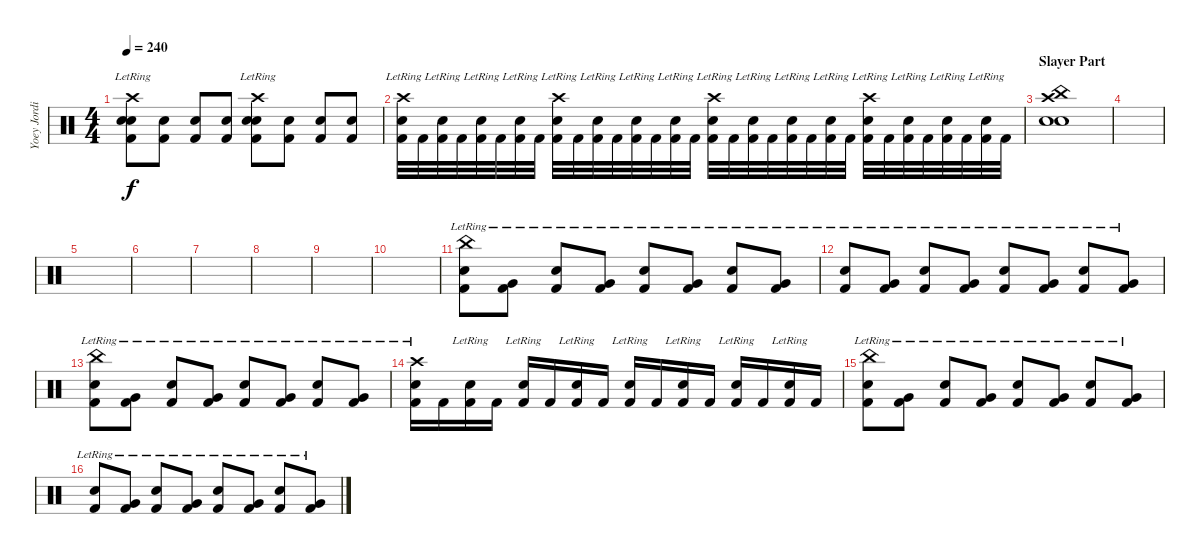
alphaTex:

\track ("Yoey Jordison" "Yoey Jordi") {instrument percussion}
\staff {score}
\articulation defaults
\ts (4 4)
\tempo 240
\clef neutral
\ks c
("Crash high (hit)" "Snare (hit) 2" "Kick (hit) 2" "Electric Snare (hit)"{lr}).8{dy f} ("Snare (hit) 2" "Kick (hit) 2").8 ("Snare (hit) 2" "Kick (hit) 2").8 ("Snare (hit) 2" "Kick (hit) 2").8 ("Crash high (hit)" "Snare (hit) 2" "Kick (hit) 2" "Electric Snare (hit)"{lr}).8 ("Snare (hit) 2" "Kick (hit) 2").8 ("Snare (hit) 2" "Kick (hit) 2").8 ("Snare (hit) 2" "Kick (hit) 2").8 |
("Crash high (hit)" "Kick (hit) 2" "Electric Snare (hit)"{lr}).32 "Kick (hit) 2".32 ("Kick (hit) 2" "Electric Snare (hit)"{lr}).32 "Kick (hit) 2".32 ("Kick (hit) 2" "Electric Snare (hit)"{lr}).32 "Kick (hit) 2".32 ("Kick (hit) 2" "Electric Snare (hit)"{lr}).32 "Kick (hit) 2".32 ("Crash high (hit)" "Kick (hit) 2" "Electric Snare (hit)"{lr}).32 "Kick (hit) 2".32 ("Kick (hit) 2" "Electric Snare (hit)"{lr}).32 "Kick (hit) 2".32 ("Kick (hit) 2" "Electric Snare (hit)"{lr}).32 "Kick (hit) 2".32 ("Kick (hit) 2" "Electric Snare (hit)"{lr}).32 "Kick (hit) 2".32 ("Crash high (hit)" "Kick (hit) 2" "Electric Snare (hit)"{lr}).32 "Kick (hit) 2".32 ("Kick (hit) 2" "Electric Snare (hit)"{lr}).32 "Kick (hit) 2".32 ("Kick (hit) 2" "Electric Snare (hit)"{lr}).32 "Kick (hit) 2".32 ("Kick (hit) 2" "Electric Snare (hit)"{lr}).32 "Kick (hit) 2".32 ("Crash high (hit)" "Kick (hit) 2" "Electric Snare (hit)"{lr}).32 "Kick (hit) 2".32 ("Kick (hit) 2" "Electric Snare (hit)"{lr}).32 "Kick (hit) 2".32 ("Kick (hit) 2" "Electric Snare (hit)"{lr}).32 "Kick (hit) 2".32 ("Kick (hit) 2" "Electric Snare (hit)"{lr}).32 "Kick (hit) 2".32 |
\section ("" "Slayer Part")
("Crash high (hit)" "China (hit)" "Snare (hit) 2" "Electric Snare (hit)").1 |
|
|
|
|
|
|
|
("China (hit)" "Kick (hit) 2" "Electric Snare (hit)"{lr}).8 ("Kick (hit) 2" "Very Low Tom (hit)"{lr}).8 ("Kick (hit) 2" "Electric Snare (hit)"{lr}).8 ("Kick (hit) 2" "Very Low Tom (hit)"{lr}).8 ("Kick (hit) 2" "Electric Snare (hit)"{lr}).8 ("Kick (hit) 2" "Very Low Tom (hit)"{lr}).8 ("Kick (hit) 2" "Electric Snare (hit)"{lr}).8 ("Kick (hit) 2" "Very Low Tom (hit)"{lr}).8 |
("Kick (hit) 2" "Electric Snare (hit)"{lr}).8 ("Kick (hit) 2" "Very Low Tom (hit)"{lr}).8 ("Kick (hit) 2" "Electric Snare (hit)"{lr}).8 ("Kick (hit) 2" "Very Low Tom (hit)"{lr}).8 ("Kick (hit) 2" "Electric Snare (hit)"{lr}).8 ("Kick (hit) 2" "Very Low Tom (hit)"{lr}).8 ("Kick (hit) 2" "Electric Snare (hit)"{lr}).8 ("Kick (hit) 2" "Very Low Tom (hit)"{lr}).8 |
("China (hit)" "Kick (hit) 2" "Electric Snare (hit)"{lr}).8 ("Kick (hit) 2" "Very Low Tom (hit)"{lr}).8 ("Kick (hit) 2" "Electric Snare (hit)"{lr}).8 ("Kick (hit) 2" "Very Low Tom (hit)"{lr}).8 ("Kick (hit) 2" "Electric Snare (hit)"{lr}).8 ("Kick (hit) 2" "Very Low Tom (hit)"{lr}).8 ("Kick (hit) 2" "Electric Snare (hit)"{lr}).8 ("Kick (hit) 2" "Very Low Tom (hit)"{lr}).8 |
("Crash high (hit)" "Kick (hit) 2" "Electric Snare (hit)"{lr}).16 "Kick (hit) 2".16 ("Kick (hit) 2" "Snare (hit) 2"{lr}).16 "Kick (hit) 2".16 ("Kick (hit) 2" "Electric Snare (hit)"{lr}).16 "Kick (hit) 2".16 ("Kick (hit) 2" "Snare (hit) 2"{lr}).16 "Kick (hit) 2".16 ("Kick (hit) 2" "Electric Snare (hit)"{lr}).16 "Kick (hit) 2".16 ("Kick (hit) 2" "Snare (hit) 2"{lr}).16 "Kick (hit) 2".16 ("Kick (hit) 2" "Electric Snare (hit)"{lr}).16 "Kick (hit) 2".16 ("Kick (hit) 2" "Snare (hit) 2"{lr}).16 "Kick (hit) 2".16 |
("China (hit)" "Kick (hit) 2" "Electric Snare (hit)"{lr}).8 ("Kick (hit) 2" "Very Low Tom (hit)"{lr}).8 ("Kick (hit) 2" "Electric Snare (hit)"{lr}).8 ("Kick (hit) 2" "Very Low Tom (hit)"{lr}).8 ("Kick (hit) 2" "Electric Snare (hit)"{lr}).8 ("Kick (hit) 2" "Very Low Tom (hit)"{lr}).8 ("Kick (hit) 2" "Electric Snare (hit)"{lr}).8 ("Kick (hit) 2" "Very Low Tom (hit)"{lr}).8 |
("Kick (hit) 2" "Electric Snare (hit)"{lr}).8 ("Kick (hit) 2" "Very Low Tom (hit)"{lr}).8 ("Kick (hit) 2" "Electric Snare (hit)"{lr}).8 ("Kick (hit) 2" "Very Low Tom (hit)"{lr}).8 ("Kick (hit) 2" "Electric Snare (hit)"{lr}).8 ("Kick (hit) 2" "Very Low Tom (hit)"{lr}).8 ("Kick (hit) 2" "Electric Snare (hit)"{lr}).8 ("Kick (hit) 2" "Very Low Tom (hit)"{lr}).8
